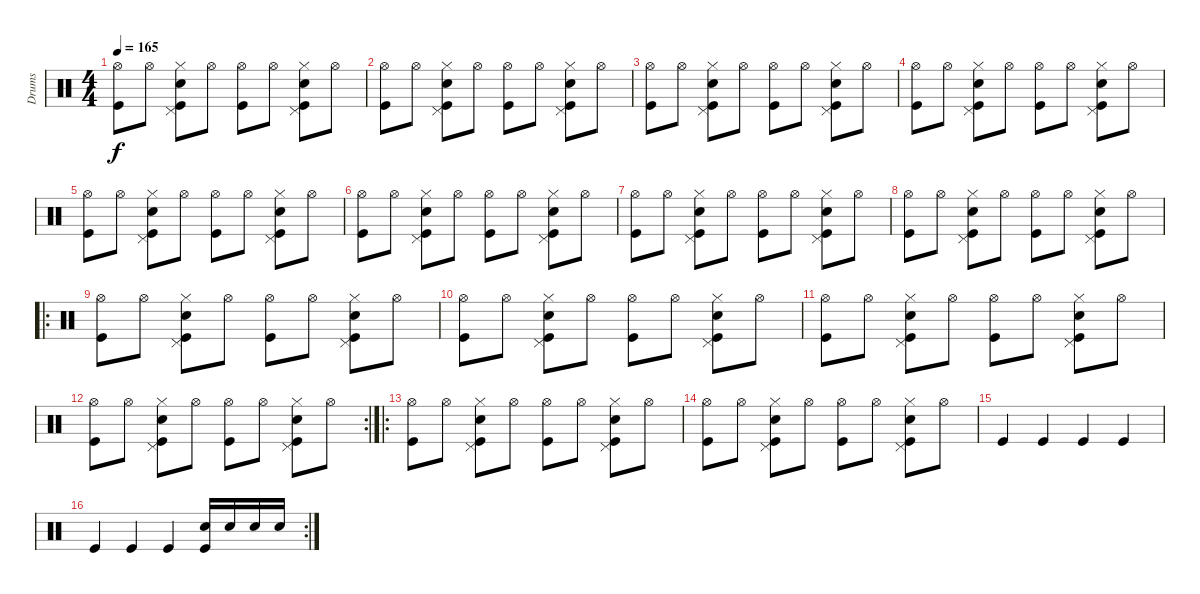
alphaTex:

\track ("Drums" "Drums") {instrument percussion}
\staff {score}
\articulation defaults
\ts (4 4)
\tempo 165
\clef neutral
\ks c
("Hi-Hat (open)" "Kick (hit)").8{dy f} "Hi-Hat (open)".8 ("Hi-Hat (closed)" "Pedal Hi-Hat (hit)" "Snare (hit) 2" "Kick (hit)").8 "Hi-Hat (open)".8 ("Hi-Hat (open)" "Kick (hit)").8 "Hi-Hat (open)".8 ("Hi-Hat (closed)" "Pedal Hi-Hat (hit)" "Snare (hit) 2" "Kick (hit)").8 "Hi-Hat (open)".8 |
("Hi-Hat (open)" "Kick (hit)").8 "Hi-Hat (open)".8 ("Hi-Hat (closed)" "Pedal Hi-Hat (hit)" "Snare (hit) 2" "Kick (hit)").8 "Hi-Hat (open)".8 ("Hi-Hat (open)" "Kick (hit)").8 "Hi-Hat (open)".8 ("Hi-Hat (closed)" "Pedal Hi-Hat (hit)" "Snare (hit) 2" "Kick (hit)").8 "Hi-Hat (open)".8 |
("Hi-Hat (open)" "Kick (hit)").8 "Hi-Hat (open)".8 ("Hi-Hat (closed)" "Pedal Hi-Hat (hit)" "Snare (hit) 2" "Kick (hit)").8 "Hi-Hat (open)".8 ("Hi-Hat (open)" "Kick (hit)").8 "Hi-Hat (open)".8 ("Hi-Hat (closed)" "Pedal Hi-Hat (hit)" "Snare (hit) 2" "Kick (hit)").8 "Hi-Hat (open)".8 |
("Hi-Hat (open)" "Kick (hit)").8 "Hi-Hat (open)".8 ("Hi-Hat (closed)" "Pedal Hi-Hat (hit)" "Snare (hit) 2" "Kick (hit)").8 "Hi-Hat (open)".8 ("Hi-Hat (open)" "Kick (hit)").8 "Hi-Hat (open)".8 ("Hi-Hat (closed)" "Pedal Hi-Hat (hit)" "Snare (hit) 2" "Kick (hit)").8 "Hi-Hat (open)".8 |
("Hi-Hat (open)" "Kick (hit)").8 "Hi-Hat (open)".8 ("Hi-Hat (closed)" "Pedal Hi-Hat (hit)" "Snare (hit) 2" "Kick (hit)").8 "Hi-Hat (open)".8 ("Hi-Hat (open)" "Kick (hit)").8 "Hi-Hat (open)".8 ("Hi-Hat (closed)" "Pedal Hi-Hat (hit)" "Snare (hit) 2" "Kick (hit)").8 "Hi-Hat (open)".8 |
("Hi-Hat (open)" "Kick (hit)").8 "Hi-Hat (open)".8 ("Hi-Hat (closed)" "Pedal Hi-Hat (hit)" "Snare (hit) 2" "Kick (hit)").8 "Hi-Hat (open)".8 ("Hi-Hat (open)" "Kick (hit)").8 "Hi-Hat (open)".8 ("Hi-Hat (closed)" "Pedal Hi-Hat (hit)" "Snare (hit) 2" "Kick (hit)").8 "Hi-Hat (open)".8 |
("Hi-Hat (open)" "Kick (hit)").8 "Hi-Hat (open)".8 ("Hi-Hat (closed)" "Pedal Hi-Hat (hit)" "Snare (hit) 2" "Kick (hit)").8 "Hi-Hat (open)".8 ("Hi-Hat (open)" "Kick (hit)").8 "Hi-Hat (open)".8 ("Hi-Hat (closed)" "Pedal Hi-Hat (hit)" "Snare (hit) 2" "Kick (hit)").8 "Hi-Hat (open)".8 |
("Hi-Hat (open)" "Kick (hit)").8 "Hi-Hat (open)".8 ("Hi-Hat (closed)" "Pedal Hi-Hat (hit)" "Snare (hit) 2" "Kick (hit)").8 "Hi-Hat (open)".8 ("Hi-Hat (open)" "Kick (hit)").8 "Hi-Hat (open)".8 ("Hi-Hat (closed)" "Pedal Hi-Hat (hit)" "Snare (hit) 2" "Kick (hit)").8 "Hi-Hat (open)".8 |
\ro
("Hi-Hat (open)" "Kick (hit)").8 "Hi-Hat (open)".8 ("Hi-Hat (closed)" "Pedal Hi-Hat (hit)" "Snare (hit) 2" "Kick (hit)").8 "Hi-Hat (open)".8 ("Hi-Hat (open)" "Kick (hit)").8 "Hi-Hat (open)".8 ("Hi-Hat (closed)" "Pedal Hi-Hat (hit)" "Snare (hit) 2" "Kick (hit)").8 "Hi-Hat (open)".8 |
("Hi-Hat (open)" "Kick (hit)").8 "Hi-Hat (open)".8 ("Hi-Hat (closed)" "Pedal Hi-Hat (hit)" "Snare (hit) 2" "Kick (hit)").8 "Hi-Hat (open)".8 ("Hi-Hat (open)" "Kick (hit)").8 "Hi-Hat (open)".8 ("Hi-Hat (closed)" "Pedal Hi-Hat (hit)" "Snare (hit) 2" "Kick (hit)").8 "Hi-Hat (open)".8 |
("Hi-Hat (open)" "Kick (hit)").8 "Hi-Hat (open)".8 ("Hi-Hat (closed)" "Pedal Hi-Hat (hit)" "Snare (hit) 2" "Kick (hit)").8 "Hi-Hat (open)".8 ("Hi-Hat (open)" "Kick (hit)").8 "Hi-Hat (open)".8 ("Hi-Hat (closed)" "Pedal Hi-Hat (hit)" "Snare (hit) 2" "Kick (hit)").8 "Hi-Hat (open)".8 |
\rc 2
("Hi-Hat (open)" "Kick (hit)").8 "Hi-Hat (open)".8 ("Hi-Hat (closed)" "Pedal Hi-Hat (hit)" "Snare (hit) 2" "Kick (hit)").8 "Hi-Hat (open)".8 ("Hi-Hat (open)" "Kick (hit)").8 "Hi-Hat (open)".8 ("Hi-Hat (closed)" "Pedal Hi-Hat (hit)" "Snare (hit) 2" "Kick (hit)").8 "Hi-Hat (open)".8 |
\ro
("Hi-Hat (open)" "Kick (hit)").8 "Hi-Hat (open)".8 ("Hi-Hat (closed)" "Pedal Hi-Hat (hit)" "Snare (hit) 2" "Kick (hit)").8 "Hi-Hat (open)".8 ("Hi-Hat (open)" "Kick (hit)").8 "Hi-Hat (open)".8 ("Hi-Hat (closed)" "Pedal Hi-Hat (hit)" "Snare (hit) 2" "Kick (hit)").8 "Hi-Hat (open)".8 |
("Hi-Hat (open)" "Kick (hit)").8 "Hi-Hat (open)".8 ("Hi-Hat (closed)" "Pedal Hi-Hat (hit)" "Snare (hit) 2" "Kick (hit)").8 "Hi-Hat (open)".8 ("Hi-Hat (open)" "Kick (hit)").8 "Hi-Hat (open)".8 ("Hi-Hat (closed)" "Pedal Hi-Hat (hit)" "Snare (hit) 2" "Kick (hit)").8 "Hi-Hat (open)".8 |
"Kick (hit)".4 "Kick (hit)".4 "Kick (hit)".4 "Kick (hit)".4 |
\rc 2 "Kick (hit)".4 "Kick (hit)".4 "Kick (hit)".4
("Snare (hit) 2" "Kick (hit)").16 "Snare (hit) 2".16 "Snare (hit) 2".16 "Snare (hit) 2".16
